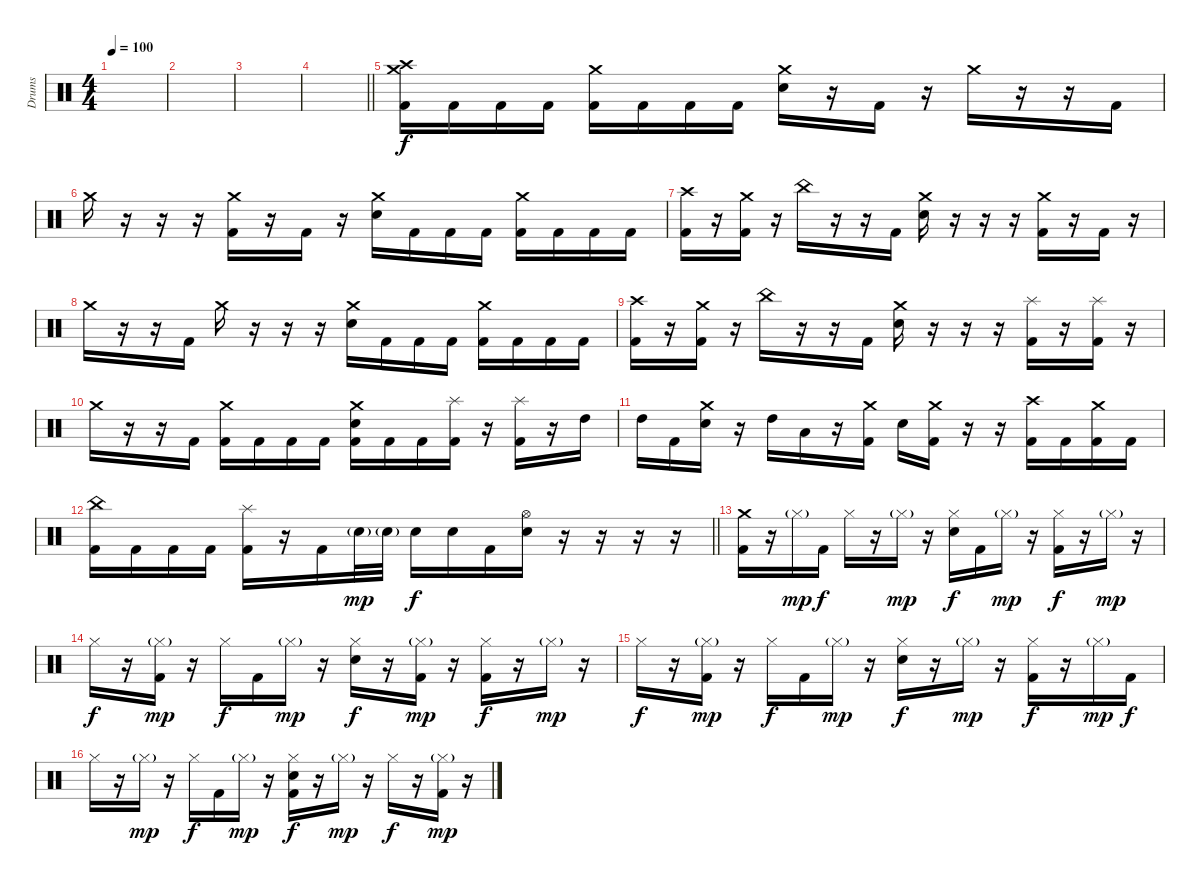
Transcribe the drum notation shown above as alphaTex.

\track ("Drums" "Drums") {instrument percussion}
\staff {score}
\articulation defaults
\ts (4 4)
\section ("" "")
\tempo 100
\clef neutral
\ks c
|
|
|
\barLineRight lightlight
|
\section ("" "")
("Crash medium (hit)" "Crash high (hit)" "Kick (hit) 2").16 "Kick (hit) 2".16 "Kick (hit) 2".16 "Kick (hit) 2".16 ("Crash medium (hit)" "Kick (hit) 2").16 "Kick (hit) 2".16 "Kick (hit) 2".16 "Kick (hit) 2".16 ("Crash medium (hit)" "Electric Snare (hit)").16 r.16 "Kick (hit) 2".16 r.16 "Crash medium (hit)".16 r.16 r.16 "Kick (hit) 2".16 |
"Crash medium (hit)".16 r.16 r.16 r.16 ("Crash medium (hit)" "Kick (hit) 2").16 r.16 "Kick (hit) 2".16 r.16 ("Crash medium (hit)" "Electric Snare (hit)").16 "Kick (hit) 2".16 "Kick (hit) 2".16 "Kick (hit) 2".16 ("Crash medium (hit)" "Kick (hit) 2").16 "Kick (hit) 2".16 "Kick (hit) 2".16 "Kick (hit) 2".16 |
("Crash high (hit)" "Kick (hit) 2").16 r.16 ("Crash medium (hit)" "Kick (hit) 2").16 r.16 "China (hit)".16 r.16 r.16 "Kick (hit) 2".16 ("Crash medium (hit)" "Electric Snare (hit)").16 r.16 r.16 r.16 ("Crash medium (hit)" "Kick (hit) 2").16 r.16 "Kick (hit) 2".16 r.16 |
"Crash medium (hit)".16 r.16 r.16 "Kick (hit) 2".16 "Crash medium (hit)".16 r.16 r.16 r.16 ("Crash medium (hit)" "Electric Snare (hit)").16 "Kick (hit) 2".16 "Kick (hit) 2".16 "Kick (hit) 2".16 ("Crash medium (hit)" "Kick (hit) 2").16 "Kick (hit) 2".16 "Kick (hit) 2".16 "Kick (hit) 2".16 |
("Crash high (hit)" "Kick (hit) 2").16 r.16 ("Crash medium (hit)" "Kick (hit) 2").16 r.16 "China (hit)".16 r.16 r.16 "Kick (hit) 2".16 ("Crash medium (hit)" "Electric Snare (hit)").16 r.16 r.16 r.16 ("Splash (hit)" "Kick (hit) 2").16 r.16 ("Splash (hit)" "Kick (hit) 2").16 r.16 |
"Crash medium (hit)".16 r.16 r.16 "Kick (hit) 2".16 ("Crash medium (hit)" "Kick (hit) 2").16 "Kick (hit) 2".16 "Kick (hit) 2".16 "Kick (hit) 2".16 ("Crash medium (hit)" "Electric Snare (hit)" "Kick (hit) 2").16 "Kick (hit) 2".16 "Kick (hit) 2".16 ("Splash (hit)" "Kick (hit) 2").16 r.16 ("Splash (hit)" "Kick (hit) 2").16 r.16 "High Tom (hit)".16 |
"High Tom (hit)".16 "Kick (hit) 2".16 ("Crash medium (hit)" "Electric Snare (hit)").16 r.16 "High Tom (hit)".16 "Low Tom (hit)".16 r.16 ("Crash medium (hit)" "Kick (hit) 2").16 "Electric Snare (hit)".16 ("Crash medium (hit)" "Kick (hit) 2").16 r.16 r.16 ("Crash high (hit)" "Kick (hit) 2").16 "Kick (hit) 2".16 ("Crash medium (hit)" "Kick (hit) 2").16 "Kick (hit) 2".16 |
\barLineRight lightlight
("China (hit)" "Kick (hit) 2").16 "Kick (hit) 2".16 "Kick (hit) 2".16 "Kick (hit) 2".16 ("Splash (hit)" "Kick (hit) 2").16 r.16 "Kick (hit) 2".16 "Electric Snare (hit)"{g}.32{dy mp} "Electric Snare (hit)"{g}.32 "Electric Snare (hit)".16{dy f} "Electric Snare (hit)".16 "Kick (hit) 2".16 ("Hi-Hat (open)" "Electric Snare (hit)").16 r.16 r.16 r.16 r.16 |
\section ("" "")
("Crash medium (hit)" "Kick (hit) 2").16 r.16 "Hi-Hat (closed)"{g}.16{dy mp} "Kick (hit) 2".16{dy f} "Hi-Hat (closed)".16 r.16 "Hi-Hat (closed)"{g}.16{dy mp} r.16 ("Hi-Hat (closed)" "Electric Snare (hit)").16{dy f} "Kick (hit) 2".16 "Hi-Hat (closed)"{g}.16{dy mp} r.16 ("Hi-Hat (closed)" "Kick (hit) 2").16{dy f} r.16 "Hi-Hat (closed)"{g}.16{dy mp} r.16 |
"Hi-Hat (closed)".16{dy f} r.16 ("Hi-Hat (closed)"{g} "Kick (hit) 2").16{dy mp} r.16 "Hi-Hat (closed)".16{dy f} "Kick (hit) 2".16 "Hi-Hat (closed)"{g}.16{dy mp} r.16 ("Hi-Hat (closed)" "Electric Snare (hit)").16{dy f} r.16 ("Hi-Hat (closed)"{g} "Kick (hit) 2").16{dy mp} r.16 ("Hi-Hat (closed)" "Kick (hit) 2").16{dy f} r.16 "Hi-Hat (closed)"{g}.16{dy mp} r.16 |
"Hi-Hat (closed)".16{dy f} r.16 ("Hi-Hat (closed)"{g} "Kick (hit) 2").16{dy mp} r.16 "Hi-Hat (closed)".16{dy f} "Kick (hit) 2".16 "Hi-Hat (closed)"{g}.16{dy mp} r.16 ("Hi-Hat (closed)" "Electric Snare (hit)").16{dy f} r.16 "Hi-Hat (closed)"{g}.16{dy mp} r.16 ("Hi-Hat (closed)" "Kick (hit) 2").16{dy f} r.16 "Hi-Hat (closed)"{g}.16{dy mp} "Kick (hit) 2".16{dy f} |
"Hi-Hat (closed)".16 r.16 "Hi-Hat (closed)"{g}.16{dy mp} r.16 "Hi-Hat (closed)".16{dy f} "Kick (hit) 2".16 "Hi-Hat (closed)"{g}.16{dy mp} r.16 ("Hi-Hat (closed)" "Electric Snare (hit)" "Kick (hit) 2").16{dy f} r.16 "Hi-Hat (closed)"{g}.16{dy mp} r.16 "Hi-Hat (closed)".16{dy f} r.16 ("Hi-Hat (closed)"{g} "Kick (hit) 2").16{dy mp} r.16
